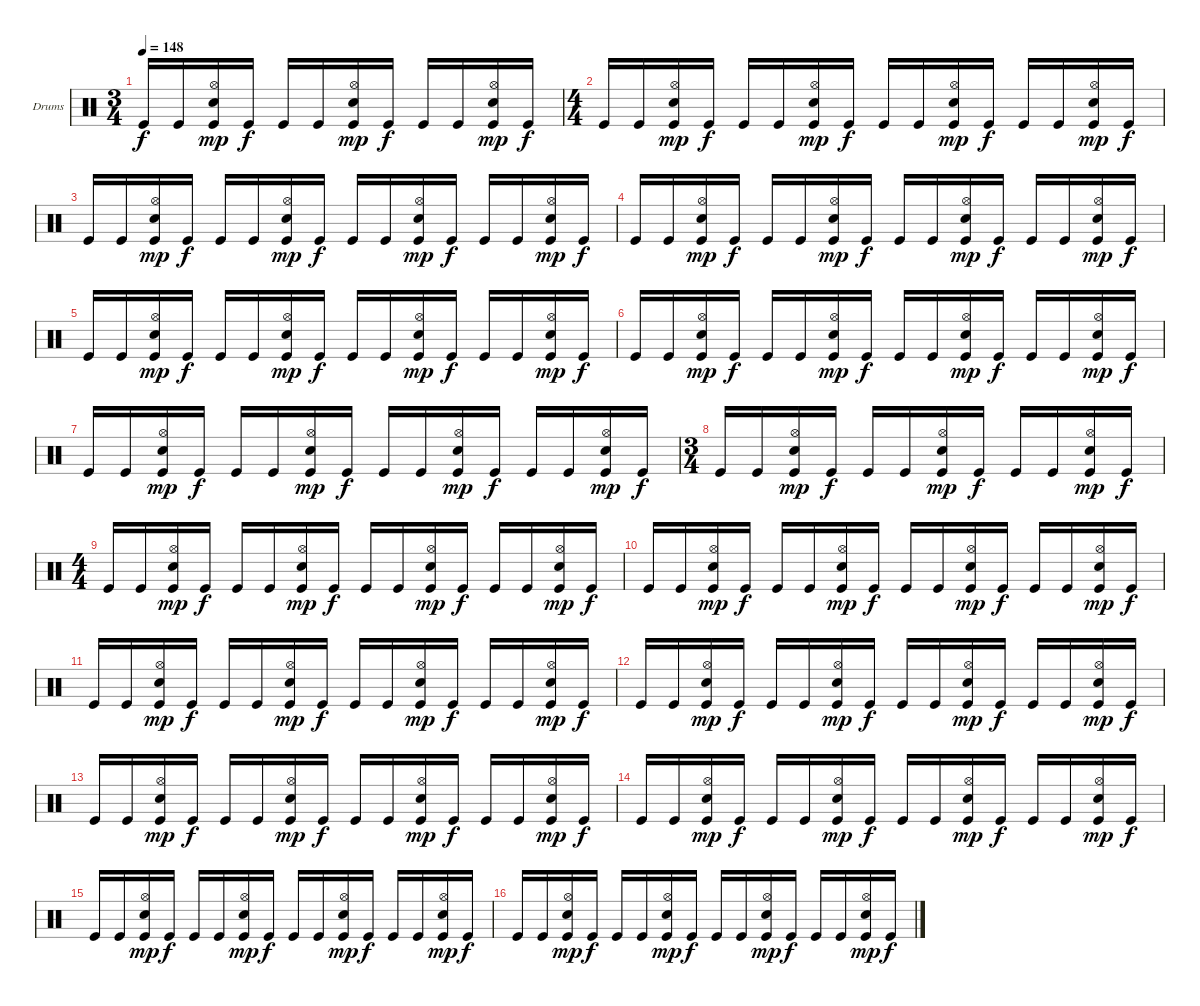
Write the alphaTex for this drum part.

\bracketExtendMode groupsimilarinstruments
\firstSystemTrackNameOrientation horizontal
\otherSystemsTrackNameOrientation horizontal
\track ("Drumkit" "Drums") {instrument percussion}
\staff {score}
\articulation defaults
\ts (3 4)
\beaming (8 2 2 2)
\tempo 148
\clef neutral
\ks c "Kick (hit)".16{dy f} "Kick (hit)".16
("Hi-Hat (open)" "Kick (hit)" "Snare (hit) 2").16{dy mp} "Kick (hit)".16{dy f} "Kick (hit)".16 "Kick (hit)".16 ("Hi-Hat (open)" "Kick (hit)" "Snare (hit) 2").16{dy mp} "Kick (hit)".16{dy f} "Kick (hit)".16 "Kick (hit)".16 ("Hi-Hat (open)" "Kick (hit)" "Snare (hit) 2").16{dy mp} "Kick (hit)".16{dy f} |
\ts (4 4)
\beaming (8 2 2 2 2)
"Kick (hit)".16 "Kick (hit)".16 ("Hi-Hat (open)" "Kick (hit)" "Snare (hit) 2").16{dy mp} "Kick (hit)".16{dy f} "Kick (hit)".16 "Kick (hit)".16 ("Hi-Hat (open)" "Kick (hit)" "Snare (hit) 2").16{dy mp} "Kick (hit)".16{dy f} "Kick (hit)".16 "Kick (hit)".16 ("Hi-Hat (open)" "Kick (hit)" "Snare (hit) 2").16{dy mp} "Kick (hit)".16{dy f} "Kick (hit)".16 "Kick (hit)".16 ("Hi-Hat (open)" "Kick (hit)" "Snare (hit) 2").16{dy mp} "Kick (hit)".16{dy f} |
"Kick (hit)".16 "Kick (hit)".16 ("Hi-Hat (open)" "Kick (hit)" "Snare (hit) 2").16{dy mp} "Kick (hit)".16{dy f} "Kick (hit)".16 "Kick (hit)".16 ("Hi-Hat (open)" "Kick (hit)" "Snare (hit) 2").16{dy mp} "Kick (hit)".16{dy f} "Kick (hit)".16 "Kick (hit)".16 ("Hi-Hat (open)" "Kick (hit)" "Snare (hit) 2").16{dy mp} "Kick (hit)".16{dy f} "Kick (hit)".16 "Kick (hit)".16 ("Hi-Hat (open)" "Kick (hit)" "Snare (hit) 2").16{dy mp} "Kick (hit)".16{dy f} |
"Kick (hit)".16 "Kick (hit)".16 ("Hi-Hat (open)" "Kick (hit)" "Snare (hit) 2").16{dy mp} "Kick (hit)".16{dy f} "Kick (hit)".16 "Kick (hit)".16 ("Hi-Hat (open)" "Kick (hit)" "Snare (hit) 2").16{dy mp} "Kick (hit)".16{dy f} "Kick (hit)".16 "Kick (hit)".16 ("Hi-Hat (open)" "Kick (hit)" "Snare (hit) 2").16{dy mp} "Kick (hit)".16{dy f} "Kick (hit)".16 "Kick (hit)".16 ("Hi-Hat (open)" "Kick (hit)" "Snare (hit) 2").16{dy mp} "Kick (hit)".16{dy f} |
"Kick (hit)".16 "Kick (hit)".16 ("Hi-Hat (open)" "Kick (hit)" "Snare (hit) 2").16{dy mp} "Kick (hit)".16{dy f} "Kick (hit)".16 "Kick (hit)".16 ("Hi-Hat (open)" "Kick (hit)" "Snare (hit) 2").16{dy mp} "Kick (hit)".16{dy f} "Kick (hit)".16 "Kick (hit)".16 ("Hi-Hat (open)" "Kick (hit)" "Snare (hit) 2").16{dy mp} "Kick (hit)".16{dy f} "Kick (hit)".16 "Kick (hit)".16 ("Hi-Hat (open)" "Kick (hit)" "Snare (hit) 2").16{dy mp} "Kick (hit)".16{dy f} |
"Kick (hit)".16 "Kick (hit)".16 ("Hi-Hat (open)" "Kick (hit)" "Snare (hit) 2").16{dy mp} "Kick (hit)".16{dy f} "Kick (hit)".16 "Kick (hit)".16 ("Hi-Hat (open)" "Kick (hit)" "Snare (hit) 2").16{dy mp} "Kick (hit)".16{dy f} "Kick (hit)".16 "Kick (hit)".16 ("Hi-Hat (open)" "Kick (hit)" "Snare (hit) 2").16{dy mp} "Kick (hit)".16{dy f} "Kick (hit)".16 "Kick (hit)".16 ("Hi-Hat (open)" "Kick (hit)" "Snare (hit) 2").16{dy mp} "Kick (hit)".16{dy f} |
"Kick (hit)".16 "Kick (hit)".16 ("Hi-Hat (open)" "Kick (hit)" "Snare (hit) 2").16{dy mp} "Kick (hit)".16{dy f} "Kick (hit)".16 "Kick (hit)".16 ("Hi-Hat (open)" "Kick (hit)" "Snare (hit) 2").16{dy mp} "Kick (hit)".16{dy f} "Kick (hit)".16 "Kick (hit)".16 ("Hi-Hat (open)" "Kick (hit)" "Snare (hit) 2").16{dy mp} "Kick (hit)".16{dy f} "Kick (hit)".16 "Kick (hit)".16 ("Hi-Hat (open)" "Kick (hit)" "Snare (hit) 2").16{dy mp} "Kick (hit)".16{dy f} |
\ts (3 4)
\beaming (8 2 2 2)
"Kick (hit)".16 "Kick (hit)".16 ("Hi-Hat (open)" "Kick (hit)" "Snare (hit) 2").16{dy mp} "Kick (hit)".16{dy f} "Kick (hit)".16 "Kick (hit)".16 ("Hi-Hat (open)" "Kick (hit)" "Snare (hit) 2").16{dy mp} "Kick (hit)".16{dy f} "Kick (hit)".16 "Kick (hit)".16 ("Hi-Hat (open)" "Kick (hit)" "Snare (hit) 2").16{dy mp} "Kick (hit)".16{dy f} |
\ts (4 4)
\beaming (8 2 2 2 2)
"Kick (hit)".16 "Kick (hit)".16 ("Hi-Hat (open)" "Kick (hit)" "Snare (hit) 2").16{dy mp} "Kick (hit)".16{dy f} "Kick (hit)".16 "Kick (hit)".16 ("Hi-Hat (open)" "Kick (hit)" "Snare (hit) 2").16{dy mp} "Kick (hit)".16{dy f} "Kick (hit)".16 "Kick (hit)".16 ("Hi-Hat (open)" "Kick (hit)" "Snare (hit) 2").16{dy mp} "Kick (hit)".16{dy f} "Kick (hit)".16 "Kick (hit)".16 ("Hi-Hat (open)" "Kick (hit)" "Snare (hit) 2").16{dy mp} "Kick (hit)".16{dy f} |
"Kick (hit)".16 "Kick (hit)".16 ("Hi-Hat (open)" "Kick (hit)" "Snare (hit) 2").16{dy mp} "Kick (hit)".16{dy f} "Kick (hit)".16 "Kick (hit)".16 ("Hi-Hat (open)" "Kick (hit)" "Snare (hit) 2").16{dy mp} "Kick (hit)".16{dy f} "Kick (hit)".16 "Kick (hit)".16 ("Hi-Hat (open)" "Kick (hit)" "Snare (hit) 2").16{dy mp} "Kick (hit)".16{dy f} "Kick (hit)".16 "Kick (hit)".16 ("Hi-Hat (open)" "Kick (hit)" "Snare (hit) 2").16{dy mp} "Kick (hit)".16{dy f} |
"Kick (hit)".16 "Kick (hit)".16 ("Hi-Hat (open)" "Kick (hit)" "Snare (hit) 2").16{dy mp} "Kick (hit)".16{dy f} "Kick (hit)".16 "Kick (hit)".16 ("Hi-Hat (open)" "Kick (hit)" "Snare (hit) 2").16{dy mp} "Kick (hit)".16{dy f} "Kick (hit)".16 "Kick (hit)".16 ("Hi-Hat (open)" "Kick (hit)" "Snare (hit) 2").16{dy mp} "Kick (hit)".16{dy f} "Kick (hit)".16 "Kick (hit)".16 ("Hi-Hat (open)" "Kick (hit)" "Snare (hit) 2").16{dy mp} "Kick (hit)".16{dy f} |
"Kick (hit)".16 "Kick (hit)".16 ("Hi-Hat (open)" "Kick (hit)" "Snare (hit) 2").16{dy mp} "Kick (hit)".16{dy f} "Kick (hit)".16 "Kick (hit)".16 ("Hi-Hat (open)" "Kick (hit)" "Snare (hit) 2").16{dy mp} "Kick (hit)".16{dy f} "Kick (hit)".16 "Kick (hit)".16 ("Hi-Hat (open)" "Kick (hit)" "Snare (hit) 2").16{dy mp} "Kick (hit)".16{dy f} "Kick (hit)".16 "Kick (hit)".16 ("Hi-Hat (open)" "Kick (hit)" "Snare (hit) 2").16{dy mp} "Kick (hit)".16{dy f} |
"Kick (hit)".16 "Kick (hit)".16 ("Hi-Hat (open)" "Kick (hit)" "Snare (hit) 2").16{dy mp} "Kick (hit)".16{dy f} "Kick (hit)".16 "Kick (hit)".16 ("Hi-Hat (open)" "Kick (hit)" "Snare (hit) 2").16{dy mp} "Kick (hit)".16{dy f} "Kick (hit)".16 "Kick (hit)".16 ("Hi-Hat (open)" "Kick (hit)" "Snare (hit) 2").16{dy mp} "Kick (hit)".16{dy f} "Kick (hit)".16 "Kick (hit)".16 ("Hi-Hat (open)" "Kick (hit)" "Snare (hit) 2").16{dy mp} "Kick (hit)".16{dy f} |
"Kick (hit)".16 "Kick (hit)".16 ("Hi-Hat (open)" "Kick (hit)" "Snare (hit) 2").16{dy mp} "Kick (hit)".16{dy f} "Kick (hit)".16 "Kick (hit)".16 ("Hi-Hat (open)" "Kick (hit)" "Snare (hit) 2").16{dy mp} "Kick (hit)".16{dy f} "Kick (hit)".16 "Kick (hit)".16 ("Hi-Hat (open)" "Kick (hit)" "Snare (hit) 2").16{dy mp} "Kick (hit)".16{dy f} "Kick (hit)".16 "Kick (hit)".16 ("Hi-Hat (open)" "Kick (hit)" "Snare (hit) 2").16{dy mp} "Kick (hit)".16{dy f} |
"Kick (hit)".16 "Kick (hit)".16 ("Hi-Hat (open)" "Kick (hit)" "Snare (hit) 2").16{dy mp} "Kick (hit)".16{dy f} "Kick (hit)".16 "Kick (hit)".16 ("Hi-Hat (open)" "Kick (hit)" "Snare (hit) 2").16{dy mp} "Kick (hit)".16{dy f} "Kick (hit)".16 "Kick (hit)".16 ("Hi-Hat (open)" "Kick (hit)" "Snare (hit) 2").16{dy mp} "Kick (hit)".16{dy f} "Kick (hit)".16 "Kick (hit)".16 ("Hi-Hat (open)" "Kick (hit)" "Snare (hit) 2").16{dy mp} "Kick (hit)".16{dy f} |
"Kick (hit)".16 "Kick (hit)".16 ("Hi-Hat (open)" "Kick (hit)" "Snare (hit) 2").16{dy mp} "Kick (hit)".16{dy f} "Kick (hit)".16 "Kick (hit)".16 ("Hi-Hat (open)" "Kick (hit)" "Snare (hit) 2").16{dy mp} "Kick (hit)".16{dy f} "Kick (hit)".16 "Kick (hit)".16 ("Hi-Hat (open)" "Kick (hit)" "Snare (hit) 2").16{dy mp} "Kick (hit)".16{dy f} "Kick (hit)".16 "Kick (hit)".16 ("Hi-Hat (open)" "Kick (hit)" "Snare (hit) 2").16{dy mp} "Kick (hit)".16{dy f}
